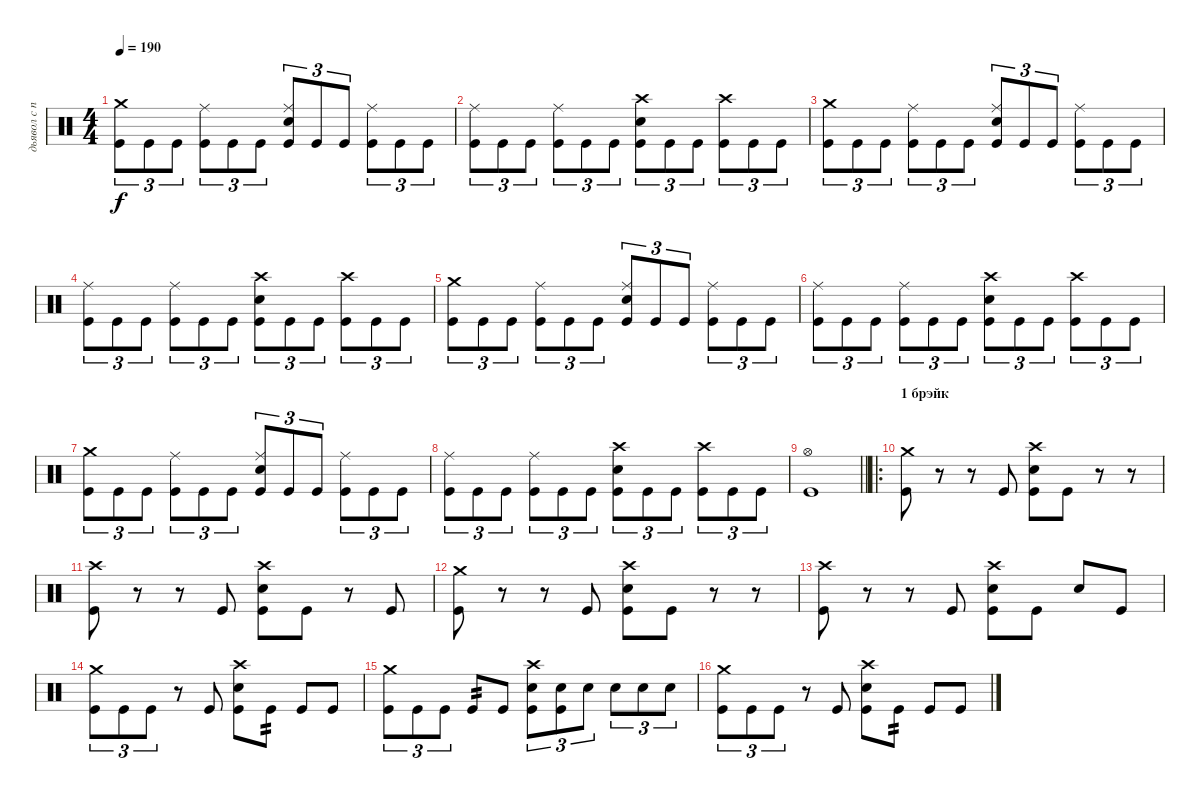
\track ("дьявол с палками" "дьявол с п") {instrument percussion}
\staff {score}
\articulation defaults
\ts (4 4)
\tempo 190
\clef neutral
\ks c
("Kick (hit)" "Crash medium (hit)").8{tu (3 2) dy f} "Kick (hit)".8{tu (3 2)} "Kick (hit)".8{tu (3 2)} ("Kick (hit)" "Ride (middle)").8{tu (3 2)} "Kick (hit)".8{tu (3 2)} "Kick (hit)".8{tu (3 2)} ("Kick (hit)" "Snare (hit) 2" "Ride (middle)").8{tu (3 2)} "Kick (hit)".8{tu (3 2)} "Kick (hit)".8{tu (3 2)} ("Kick (hit)" "Ride (middle)").8{tu (3 2)} "Kick (hit)".8{tu (3 2)} "Kick (hit)".8{tu (3 2)} |
("Kick (hit)" "Ride (middle)").8{tu (3 2)} "Kick (hit)".8{tu (3 2)} "Kick (hit)".8{tu (3 2)} ("Kick (hit)" "Ride (middle)").8{tu (3 2)} "Kick (hit)".8{tu (3 2)} "Kick (hit)".8{tu (3 2)} ("Kick (hit)" "Snare (hit) 2" "Crash high (hit)").8{tu (3 2)} "Kick (hit)".8{tu (3 2)} "Kick (hit)".8{tu (3 2)} ("Kick (hit)" "Crash high (hit)").8{tu (3 2)} "Kick (hit)".8{tu (3 2)} "Kick (hit)".8{tu (3 2)} |
("Kick (hit)" "Crash medium (hit)").8{tu (3 2)} "Kick (hit)".8{tu (3 2)} "Kick (hit)".8{tu (3 2)} ("Kick (hit)" "Ride (middle)").8{tu (3 2)} "Kick (hit)".8{tu (3 2)} "Kick (hit)".8{tu (3 2)} ("Kick (hit)" "Snare (hit) 2" "Ride (middle)").8{tu (3 2)} "Kick (hit)".8{tu (3 2)} "Kick (hit)".8{tu (3 2)} ("Kick (hit)" "Ride (middle)").8{tu (3 2)} "Kick (hit)".8{tu (3 2)} "Kick (hit)".8{tu (3 2)} |
("Kick (hit)" "Ride (middle)").8{tu (3 2)} "Kick (hit)".8{tu (3 2)} "Kick (hit)".8{tu (3 2)} ("Kick (hit)" "Ride (middle)").8{tu (3 2)} "Kick (hit)".8{tu (3 2)} "Kick (hit)".8{tu (3 2)} ("Kick (hit)" "Snare (hit) 2" "Crash high (hit)").8{tu (3 2)} "Kick (hit)".8{tu (3 2)} "Kick (hit)".8{tu (3 2)} ("Kick (hit)" "Crash high (hit)").8{tu (3 2)} "Kick (hit)".8{tu (3 2)} "Kick (hit)".8{tu (3 2)} |
("Kick (hit)" "Crash medium (hit)").8{tu (3 2)} "Kick (hit)".8{tu (3 2)} "Kick (hit)".8{tu (3 2)} ("Kick (hit)" "Ride (middle)").8{tu (3 2)} "Kick (hit)".8{tu (3 2)} "Kick (hit)".8{tu (3 2)} ("Kick (hit)" "Snare (hit) 2" "Ride (middle)").8{tu (3 2)} "Kick (hit)".8{tu (3 2)} "Kick (hit)".8{tu (3 2)} ("Kick (hit)" "Ride (middle)").8{tu (3 2)} "Kick (hit)".8{tu (3 2)} "Kick (hit)".8{tu (3 2)} |
("Kick (hit)" "Ride (middle)").8{tu (3 2)} "Kick (hit)".8{tu (3 2)} "Kick (hit)".8{tu (3 2)} ("Kick (hit)" "Ride (middle)").8{tu (3 2)} "Kick (hit)".8{tu (3 2)} "Kick (hit)".8{tu (3 2)} ("Kick (hit)" "Snare (hit) 2" "Crash high (hit)").8{tu (3 2)} "Kick (hit)".8{tu (3 2)} "Kick (hit)".8{tu (3 2)} ("Kick (hit)" "Crash high (hit)").8{tu (3 2)} "Kick (hit)".8{tu (3 2)} "Kick (hit)".8{tu (3 2)} |
("Kick (hit)" "Crash medium (hit)").8{tu (3 2)} "Kick (hit)".8{tu (3 2)} "Kick (hit)".8{tu (3 2)} ("Kick (hit)" "Ride (middle)").8{tu (3 2)} "Kick (hit)".8{tu (3 2)} "Kick (hit)".8{tu (3 2)} ("Kick (hit)" "Snare (hit) 2" "Ride (middle)").8{tu (3 2)} "Kick (hit)".8{tu (3 2)} "Kick (hit)".8{tu (3 2)} ("Kick (hit)" "Ride (middle)").8{tu (3 2)} "Kick (hit)".8{tu (3 2)} "Kick (hit)".8{tu (3 2)} |
("Kick (hit)" "Ride (middle)").8{tu (3 2)} "Kick (hit)".8{tu (3 2)} "Kick (hit)".8{tu (3 2)} ("Kick (hit)" "Ride (middle)").8{tu (3 2)} "Kick (hit)".8{tu (3 2)} "Kick (hit)".8{tu (3 2)} ("Kick (hit)" "Snare (hit) 2" "Crash high (hit)").8{tu (3 2)} "Kick (hit)".8{tu (3 2)} "Kick (hit)".8{tu (3 2)} ("Kick (hit)" "Crash high (hit)").8{tu (3 2)} "Kick (hit)".8{tu (3 2)} "Kick (hit)".8{tu (3 2)} |
\barLineRight lightlight
("Kick (hit)" "Hi-Hat (open)").1 |
\ro
\section ("" "1 брэйк")
("Kick (hit)" "Crash medium (hit)").8 r.8 r.8 "Kick (hit)".8 ("Kick (hit)" "Snare (hit) 2" "Crash high (hit)").8 "Kick (hit)".8 r.8 r.8 |
("Kick (hit)" "Crash high (hit)").8 r.8 r.8 "Kick (hit)".8 ("Kick (hit)" "Snare (hit) 2" "Crash high (hit)").8 "Kick (hit)".8 r.8 "Kick (hit)".8 |
("Kick (hit)" "Crash medium (hit)").8 r.8 r.8 "Kick (hit)".8 ("Kick (hit)" "Snare (hit) 2" "Crash high (hit)").8 "Kick (hit)".8 r.8 r.8 |
("Kick (hit)" "Crash high (hit)").8 r.8 r.8 "Kick (hit)".8 ("Kick (hit)" "Snare (hit) 2" "Crash high (hit)").8 "Kick (hit)".8 "Snare (hit) 2".8 "Kick (hit)".8 |
("Kick (hit)" "Crash medium (hit)").8{tu (3 2)} "Kick (hit)".8{tu (3 2)} "Kick (hit)".8{tu (3 2)} r.8 "Kick (hit)".8 ("Kick (hit)" "Snare (hit) 2" "Crash high (hit)").8 "Kick (hit)".8{tp 2} "Kick (hit)".8 "Kick (hit)".8 |
("Kick (hit)" "Crash medium (hit)").8{tu (3 2)} "Kick (hit)".8{tu (3 2)} "Kick (hit)".8{tu (3 2)} "Kick (hit)".8{tp 2} "Kick (hit)".8 ("Kick (hit)" "Snare (hit) 2" "Crash high (hit)").8{tu (3 2)} ("Kick (hit)" "Snare (hit) 2").8{tu (3 2)} "Snare (hit) 2".8{tu (3 2)} "Snare (hit) 2".8{tu (3 2)} "Snare (hit) 2".8{tu (3 2)} "Snare (hit) 2".8{tu (3 2)} |
("Kick (hit)" "Crash medium (hit)").8{tu (3 2)} "Kick (hit)".8{tu (3 2)} "Kick (hit)".8{tu (3 2)} r.8 "Kick (hit)".8 ("Kick (hit)" "Snare (hit) 2" "Crash high (hit)").8 "Kick (hit)".8{tp 2} "Kick (hit)".8 "Kick (hit)".8
